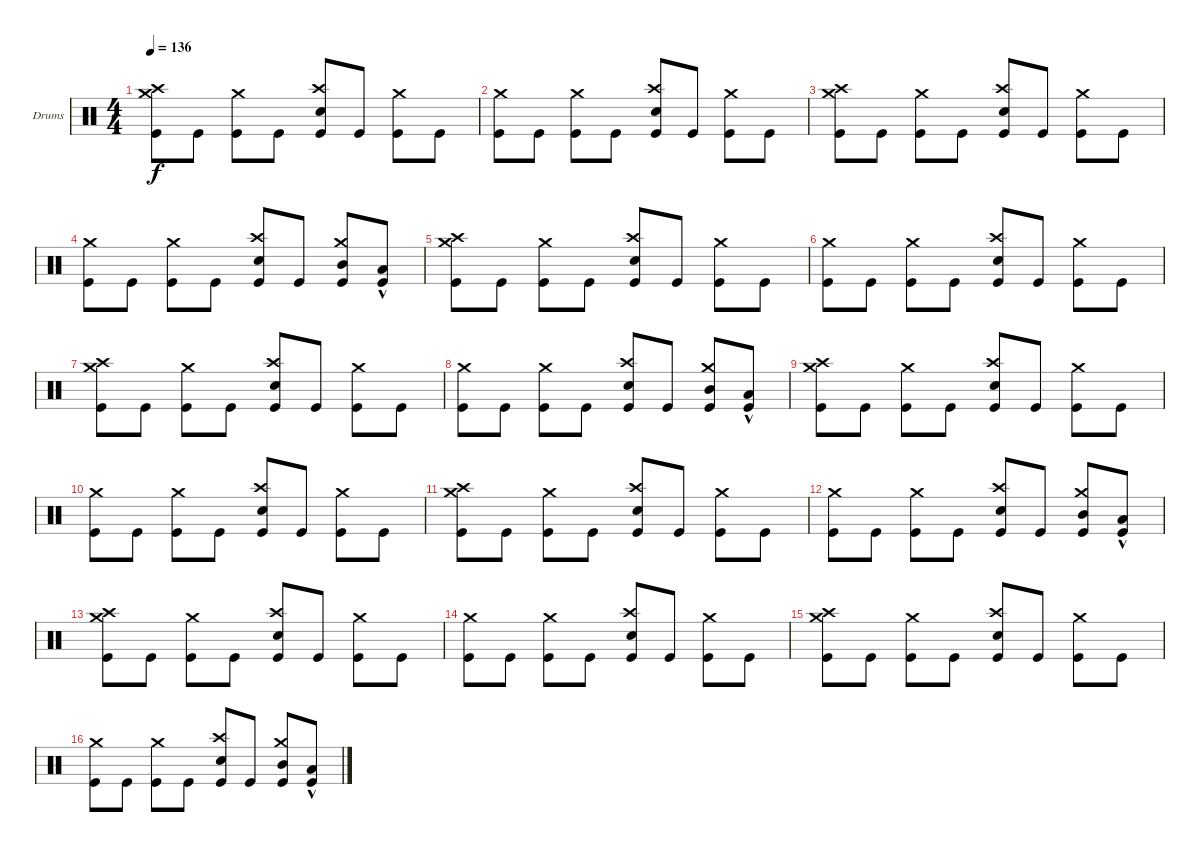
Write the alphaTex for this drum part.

\bracketExtendMode groupsimilarinstruments
\firstSystemTrackNameOrientation horizontal
\otherSystemsTrackNameOrientation horizontal
\track ("Drumkit" "Drums") {instrument percussion}
\staff {score}
\articulation defaults
\ts (4 4)
\tempo 136
\clef neutral
\scale
0.333333
\ks c
("Kick (hit)" "Crash medium (hit)" "Crash high (hit)").8{dy f} "Kick (hit)".8 ("Crash medium (hit)" "Kick (hit)").8 "Kick (hit)".8 ("Snare (hit) 2" "Crash high (hit)" "Kick (hit)").8 "Kick (hit)".8 ("Crash medium (hit)" "Kick (hit)").8 "Kick (hit)".8 |
\scale
0.333333 ("Kick (hit)" "Crash medium (hit)").8 "Kick (hit)".8 ("Crash medium (hit)" "Kick (hit)").8 "Kick (hit)".8 ("Snare (hit) 2" "Crash high (hit)" "Kick (hit)").8 "Kick (hit)".8 ("Crash medium (hit)" "Kick (hit)").8 "Kick (hit)".8 |
\scale
0.333333 ("Kick (hit)" "Crash medium (hit)" "Crash high (hit)").8 "Kick (hit)".8 ("Crash medium (hit)" "Kick (hit)").8 "Kick (hit)".8 ("Snare (hit) 2" "Crash high (hit)" "Kick (hit)").8 "Kick (hit)".8 ("Crash medium (hit)" "Kick (hit)").8 "Kick (hit)".8 |
\scale
0.333333 ("Kick (hit)" "Crash medium (hit)").8 "Kick (hit)".8 ("Crash medium (hit)" "Kick (hit)").8 "Kick (hit)".8 ("Snare (hit) 2" "Crash high (hit)" "Kick (hit)").8 "Kick (hit)".8 ("Crash medium (hit)" "Kick (hit)" "Mid Tom (hit)").8 ("Kick (hit)" "Low Tom (hit)"{hac}).8 |
\scale
0.333333 ("Kick (hit)" "Crash medium (hit)" "Crash high (hit)").8 "Kick (hit)".8 ("Crash medium (hit)" "Kick (hit)").8 "Kick (hit)".8 ("Snare (hit) 2" "Crash high (hit)" "Kick (hit)").8 "Kick (hit)".8 ("Crash medium (hit)" "Kick (hit)").8 "Kick (hit)".8 |
\scale
0.333333 ("Kick (hit)" "Crash medium (hit)").8 "Kick (hit)".8 ("Crash medium (hit)" "Kick (hit)").8 "Kick (hit)".8 ("Snare (hit) 2" "Crash high (hit)" "Kick (hit)").8 "Kick (hit)".8 ("Crash medium (hit)" "Kick (hit)").8 "Kick (hit)".8 |
\scale
0.333333 ("Kick (hit)" "Crash medium (hit)" "Crash high (hit)").8 "Kick (hit)".8 ("Crash medium (hit)" "Kick (hit)").8 "Kick (hit)".8 ("Snare (hit) 2" "Crash high (hit)" "Kick (hit)").8 "Kick (hit)".8 ("Crash medium (hit)" "Kick (hit)").8 "Kick (hit)".8 |
\scale
0.333333 ("Kick (hit)" "Crash medium (hit)").8 "Kick (hit)".8 ("Crash medium (hit)" "Kick (hit)").8 "Kick (hit)".8 ("Snare (hit) 2" "Crash high (hit)" "Kick (hit)").8 "Kick (hit)".8 ("Crash medium (hit)" "Kick (hit)" "Mid Tom (hit)").8 ("Kick (hit)" "Low Tom (hit)"{hac}).8 |
\scale
0.333333 ("Kick (hit)" "Crash medium (hit)" "Crash high (hit)").8 "Kick (hit)".8 ("Crash medium (hit)" "Kick (hit)").8 "Kick (hit)".8 ("Snare (hit) 2" "Crash high (hit)" "Kick (hit)").8 "Kick (hit)".8 ("Crash medium (hit)" "Kick (hit)").8 "Kick (hit)".8 |
\scale
0.333333 ("Kick (hit)" "Crash medium (hit)").8 "Kick (hit)".8 ("Crash medium (hit)" "Kick (hit)").8 "Kick (hit)".8 ("Snare (hit) 2" "Crash high (hit)" "Kick (hit)").8 "Kick (hit)".8 ("Crash medium (hit)" "Kick (hit)").8 "Kick (hit)".8 |
\scale
0.333333 ("Kick (hit)" "Crash medium (hit)" "Crash high (hit)").8 "Kick (hit)".8 ("Crash medium (hit)" "Kick (hit)").8 "Kick (hit)".8 ("Snare (hit) 2" "Crash high (hit)" "Kick (hit)").8 "Kick (hit)".8 ("Crash medium (hit)" "Kick (hit)").8 "Kick (hit)".8 |
\scale
0.333333 ("Kick (hit)" "Crash medium (hit)").8 "Kick (hit)".8 ("Crash medium (hit)" "Kick (hit)").8 "Kick (hit)".8 ("Snare (hit) 2" "Crash high (hit)" "Kick (hit)").8 "Kick (hit)".8 ("Crash medium (hit)" "Kick (hit)" "Mid Tom (hit)").8 ("Kick (hit)" "Low Tom (hit)"{hac}).8 |
\scale
0.333333 ("Kick (hit)" "Crash medium (hit)" "Crash high (hit)").8 "Kick (hit)".8 ("Crash medium (hit)" "Kick (hit)").8 "Kick (hit)".8 ("Snare (hit) 2" "Crash high (hit)" "Kick (hit)").8 "Kick (hit)".8 ("Crash medium (hit)" "Kick (hit)").8 "Kick (hit)".8 |
\scale
0.333333 ("Kick (hit)" "Crash medium (hit)").8 "Kick (hit)".8 ("Crash medium (hit)" "Kick (hit)").8 "Kick (hit)".8 ("Snare (hit) 2" "Crash high (hit)" "Kick (hit)").8 "Kick (hit)".8 ("Crash medium (hit)" "Kick (hit)").8 "Kick (hit)".8 |
\scale
0.333333 ("Kick (hit)" "Crash medium (hit)" "Crash high (hit)").8 "Kick (hit)".8 ("Crash medium (hit)" "Kick (hit)").8 "Kick (hit)".8 ("Snare (hit) 2" "Crash high (hit)" "Kick (hit)").8 "Kick (hit)".8 ("Crash medium (hit)" "Kick (hit)").8 "Kick (hit)".8 |
\scale
0.333333 ("Kick (hit)" "Crash medium (hit)").8 "Kick (hit)".8 ("Crash medium (hit)" "Kick (hit)").8 "Kick (hit)".8 ("Snare (hit) 2" "Crash high (hit)" "Kick (hit)").8 "Kick (hit)".8 ("Crash medium (hit)" "Kick (hit)" "Mid Tom (hit)").8 ("Kick (hit)" "Low Tom (hit)"{hac}).8
